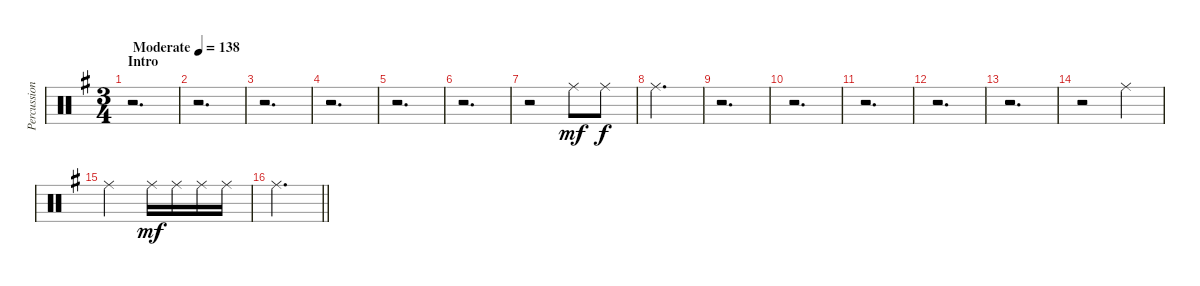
\track ("Percussion (Thomen Stauch)" "Percussion") {instrument percussion}
\staff {score}
\articulation defaults
\ts (3 4)
\section ("" "Intro")
\tempo (138 "Moderate")
\clef neutral
\ks eminor
r.2{d dy mf} |
r.2{d} |
r.2{d} |
r.2{d} |
r.2{d} |
r.2{d} |
r.2 "Ride (middle)".8 "Ride (middle)".8{dy f} |
"Ride (middle)".2{d} |
r.2{d} |
r.2{d} |
r.2{d} |
r.2{d} |
r.2{d} |
r.2 "Ride (middle)".4 |
"Ride (middle)".2 "Ride (middle)".16{dy mf} "Ride (middle)".16 "Ride (middle)".16 "Ride (middle)".16 |
\barLineRight lightlight "Ride (middle)".2{d}
